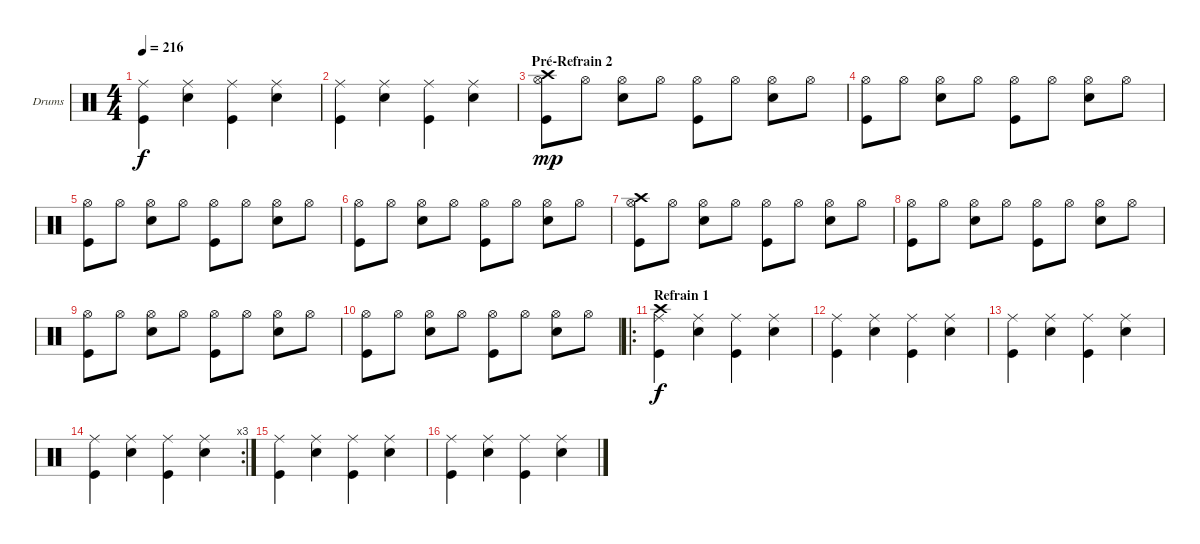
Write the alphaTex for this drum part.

\bracketExtendMode groupsimilarinstruments
\firstSystemTrackNameOrientation horizontal
\otherSystemsTrackNameOrientation horizontal
\chordDiagramsInScore
\track ("Drumkit" "Drums") {instrument percussion}
\staff {score}
\articulation defaults
\ts (4 4)
\tempo 216
\clef neutral
\ks c
("Ride (middle)" "Kick (hit)").4{dy f} ("Ride (middle)" "Snare (hit) 2").4 ("Ride (middle)" "Kick (hit)").4 ("Ride (middle)" "Snare (hit) 2").4 |
("Ride (middle)" "Kick (hit)").4 ("Ride (middle)" "Snare (hit) 2").4 ("Ride (middle)" "Kick (hit)").4 ("Ride (middle)" "Snare (hit) 2").4 |
\section ("" "Pré-Refrain 2")
("Hi-Hat (open)" "Crash high (hit)" "Kick (hit)").8{dy mp} "Hi-Hat (open)".8 ("Hi-Hat (open)" "Snare (hit) 2").8 "Hi-Hat (open)".8 ("Hi-Hat (open)" "Kick (hit)").8 "Hi-Hat (open)".8 ("Hi-Hat (open)" "Snare (hit) 2").8 "Hi-Hat (open)".8 |
("Hi-Hat (open)" "Kick (hit)").8 "Hi-Hat (open)".8 ("Hi-Hat (open)" "Snare (hit) 2").8 "Hi-Hat (open)".8 ("Hi-Hat (open)" "Kick (hit)").8 "Hi-Hat (open)".8 ("Hi-Hat (open)" "Snare (hit) 2").8 "Hi-Hat (open)".8 |
("Hi-Hat (open)" "Kick (hit)").8 "Hi-Hat (open)".8 ("Hi-Hat (open)" "Snare (hit) 2").8 "Hi-Hat (open)".8 ("Hi-Hat (open)" "Kick (hit)").8 "Hi-Hat (open)".8 ("Hi-Hat (open)" "Snare (hit) 2").8 "Hi-Hat (open)".8 |
("Hi-Hat (open)" "Kick (hit)").8 "Hi-Hat (open)".8 ("Hi-Hat (open)" "Snare (hit) 2").8 "Hi-Hat (open)".8 ("Hi-Hat (open)" "Kick (hit)").8 "Hi-Hat (open)".8 ("Hi-Hat (open)" "Snare (hit) 2").8 "Hi-Hat (open)".8 |
("Hi-Hat (open)" "Crash high (hit)" "Kick (hit)").8 "Hi-Hat (open)".8 ("Hi-Hat (open)" "Snare (hit) 2").8 "Hi-Hat (open)".8 ("Hi-Hat (open)" "Kick (hit)").8 "Hi-Hat (open)".8 ("Hi-Hat (open)" "Snare (hit) 2").8 "Hi-Hat (open)".8 |
("Hi-Hat (open)" "Kick (hit)").8 "Hi-Hat (open)".8 ("Hi-Hat (open)" "Snare (hit) 2").8 "Hi-Hat (open)".8 ("Hi-Hat (open)" "Kick (hit)").8 "Hi-Hat (open)".8 ("Hi-Hat (open)" "Snare (hit) 2").8 "Hi-Hat (open)".8 |
("Hi-Hat (open)" "Kick (hit)").8 "Hi-Hat (open)".8 ("Hi-Hat (open)" "Snare (hit) 2").8 "Hi-Hat (open)".8 ("Hi-Hat (open)" "Kick (hit)").8 "Hi-Hat (open)".8 ("Hi-Hat (open)" "Snare (hit) 2").8 "Hi-Hat (open)".8 |
("Hi-Hat (open)" "Kick (hit)").8 "Hi-Hat (open)".8 ("Hi-Hat (open)" "Snare (hit) 2").8 "Hi-Hat (open)".8 ("Hi-Hat (open)" "Kick (hit)").8 "Hi-Hat (open)".8 ("Hi-Hat (open)" "Snare (hit) 2").8 "Hi-Hat (open)".8 |
\ro
\section ("" "Refrain 1")
("Ride (middle)" "Crash high (hit)" "Kick (hit)").4{dy f} ("Ride (middle)" "Snare (hit) 2").4 ("Ride (middle)" "Kick (hit)").4 ("Ride (middle)" "Snare (hit) 2").4 |
("Ride (middle)" "Kick (hit)").4 ("Ride (middle)" "Snare (hit) 2").4 ("Ride (middle)" "Kick (hit)").4 ("Ride (middle)" "Snare (hit) 2").4 |
("Ride (middle)" "Kick (hit)").4 ("Ride (middle)" "Snare (hit) 2").4 ("Ride (middle)" "Kick (hit)").4 ("Ride (middle)" "Snare (hit) 2").4 |
\rc 3
("Ride (middle)" "Kick (hit)").4 ("Ride (middle)" "Snare (hit) 2").4 ("Ride (middle)" "Kick (hit)").4 ("Ride (middle)" "Snare (hit) 2").4 |
("Ride (middle)" "Kick (hit)").4 ("Ride (middle)" "Snare (hit) 2").4 ("Ride (middle)" "Kick (hit)").4 ("Ride (middle)" "Snare (hit) 2").4 |
("Ride (middle)" "Kick (hit)").4 ("Ride (middle)" "Snare (hit) 2").4 ("Ride (middle)" "Kick (hit)").4 ("Ride (middle)" "Snare (hit) 2").4
